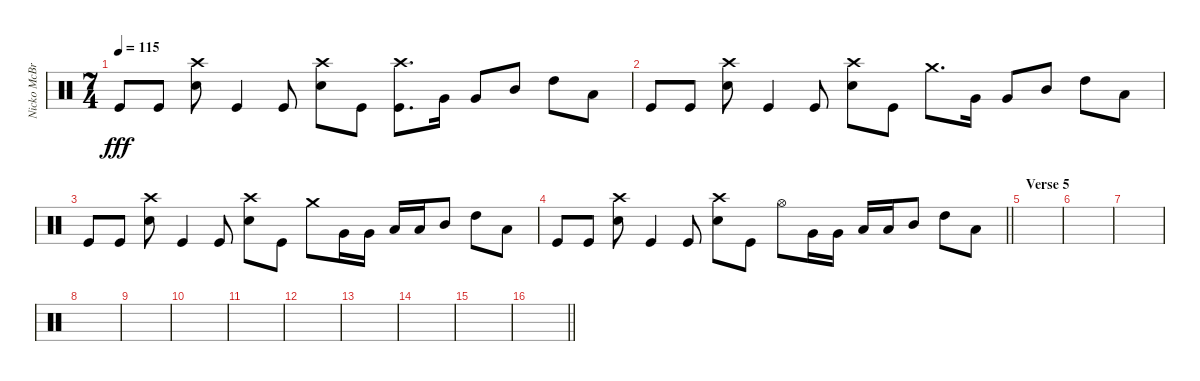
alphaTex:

\track ("Nicko McBrain" "Nicko McBr") {instrument percussion}
\staff {score}
\articulation defaults
\ts (7 4)
\tempo 115
\clef neutral
\ks c "Kick (hit)".8{dy fff} "Kick (hit)".8
("Crash high (hit)" "Electric Snare (hit)").8 "Kick (hit)".4 "Kick (hit)".8 ("Crash high (hit)" "Electric Snare (hit)").8 "Kick (hit)".8 ("Crash high (hit)" "Kick (hit)").8{d} "Very Low Tom (hit)".16 "Very Low Tom (hit)".8 "Mid Tom (hit)".8 "High Tom (hit)".8 "Low Tom (hit)".8 |
"Kick (hit)".8 "Kick (hit)".8 ("Crash high (hit)" "Electric Snare (hit)").8 "Kick (hit)".4 "Kick (hit)".8 ("Crash high (hit)" "Electric Snare (hit)").8 "Kick (hit)".8 "Crash medium (hit)".8{d} "Very Low Tom (hit)".16 "Very Low Tom (hit)".8 "Mid Tom (hit)".8 "High Tom (hit)".8 "Low Tom (hit)".8 |
"Kick (hit)".8 "Kick (hit)".8 ("Crash high (hit)" "Electric Snare (hit)").8 "Kick (hit)".4 "Kick (hit)".8 ("Crash high (hit)" "Electric Snare (hit)").8 "Kick (hit)".8 "Crash medium (hit)".8 "Very Low Tom (hit)".16 "Very Low Tom (hit)".16 "Low Tom (hit)".16 "Low Tom (hit)".16 "Mid Tom (hit)".8 "High Tom (hit)".8 "Low Tom (hit)".8 |
\barLineRight lightlight "Kick (hit)".8 "Kick (hit)".8
("Crash high (hit)" "Electric Snare (hit)").8 "Kick (hit)".4 "Kick (hit)".8 ("Crash high (hit)" "Electric Snare (hit)").8 "Kick (hit)".8 "Hi-Hat (open)".8 "Very Low Tom (hit)".16 "Very Low Tom (hit)".16 "Low Tom (hit)".16 "Low Tom (hit)".16 "Mid Tom (hit)".8 "High Tom (hit)".8 "Low Tom (hit)".8 |
\section ("" "Verse 5")
|
|
|
|
|
|
|
|
|
|
|
\barLineRight lightlight
